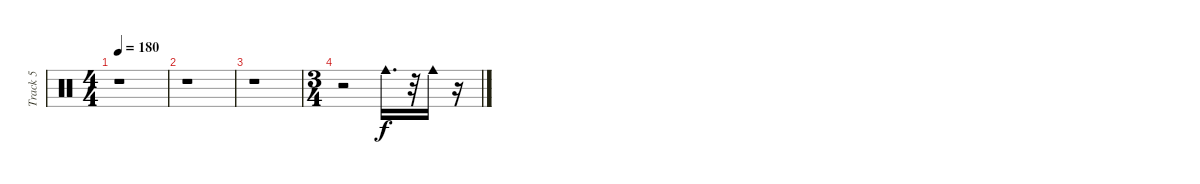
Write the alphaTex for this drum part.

\track ("Track 5" "Track 5") {instrument percussion}
\staff {score}
\articulation defaults
\ts (4 4)
\tempo 180
\clef neutral
\ks c
r.1{dy f} |
r.1 |
r.1 |
\ts (3 4)
r.2 "Cowbell medium (hit)".16{d} r.32 "Cowbell medium (hit)".16 r.16
